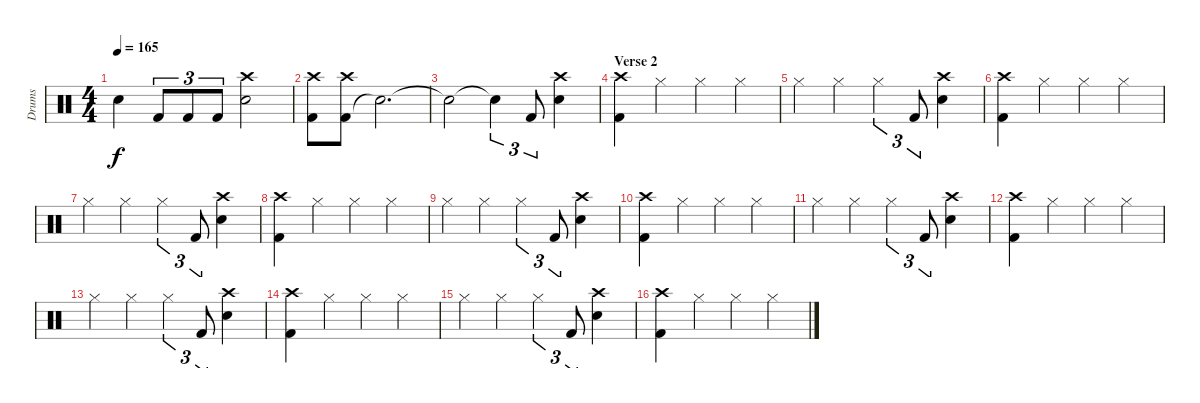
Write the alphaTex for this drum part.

\track ("Drums" "Drums") {instrument percussion}
\staff {score}
\articulation defaults
\ts (4 4)
\tempo 165
\clef neutral
\ks c "Snare (hit)"{t}.4{dy f} "Kick (hit) 2".8{tu (3 2)} "Kick (hit) 2".8{tu (3 2)} "Kick (hit) 2".8{tu (3 2)}
("Snare (hit) 2" "Crash high (hit)").2 |
("Kick (hit) 2" "Crash high (hit)").8 ("Kick (hit) 2" "Crash high (hit)").8 "Snare (hit)"{t}.2{d} |
"Snare (hit)"{t}.2 "Snare (hit)"{t}.4{tu (3 2)} "Kick (hit) 2".8{tu (3 2)} ("Snare (hit) 2" "Crash high (hit)").4 |
\section ("" "Verse 2")
("Kick (hit) 2" "Crash high (hit)").4 "Hi-Hat (closed)".4 "Hi-Hat (closed)".4 "Hi-Hat (closed)".4 |
"Hi-Hat (closed)".4 "Hi-Hat (closed)".4 "Hi-Hat (closed)".4{tu (3 2)} "Kick (hit) 2".8{tu (3 2)} ("Snare (hit) 2" "Crash high (hit)").4 |
("Kick (hit) 2" "Crash high (hit)").4 "Hi-Hat (closed)".4 "Hi-Hat (closed)".4 "Hi-Hat (closed)".4 |
"Hi-Hat (closed)".4 "Hi-Hat (closed)".4 "Hi-Hat (closed)".4{tu (3 2)} "Kick (hit) 2".8{tu (3 2)} ("Snare (hit) 2" "Crash high (hit)").4 |
("Kick (hit) 2" "Crash high (hit)").4 "Hi-Hat (closed)".4 "Hi-Hat (closed)".4 "Hi-Hat (closed)".4 |
"Hi-Hat (closed)".4 "Hi-Hat (closed)".4 "Hi-Hat (closed)".4{tu (3 2)} "Kick (hit) 2".8{tu (3 2)} ("Snare (hit) 2" "Crash high (hit)").4 |
("Kick (hit) 2" "Crash high (hit)").4 "Hi-Hat (closed)".4 "Hi-Hat (closed)".4 "Hi-Hat (closed)".4 |
"Hi-Hat (closed)".4 "Hi-Hat (closed)".4 "Hi-Hat (closed)".4{tu (3 2)} "Kick (hit) 2".8{tu (3 2)} ("Snare (hit) 2" "Crash high (hit)").4 |
("Kick (hit) 2" "Crash high (hit)").4 "Hi-Hat (closed)".4 "Hi-Hat (closed)".4 "Hi-Hat (closed)".4 |
"Hi-Hat (closed)".4 "Hi-Hat (closed)".4 "Hi-Hat (closed)".4{tu (3 2)} "Kick (hit) 2".8{tu (3 2)} ("Snare (hit) 2" "Crash high (hit)").4 |
("Kick (hit) 2" "Crash high (hit)").4 "Hi-Hat (closed)".4 "Hi-Hat (closed)".4 "Hi-Hat (closed)".4 |
"Hi-Hat (closed)".4 "Hi-Hat (closed)".4 "Hi-Hat (closed)".4{tu (3 2)} "Kick (hit) 2".8{tu (3 2)} ("Snare (hit) 2" "Crash high (hit)").4 |
("Kick (hit) 2" "Crash high (hit)").4 "Hi-Hat (closed)".4 "Hi-Hat (closed)".4 "Hi-Hat (closed)".4
